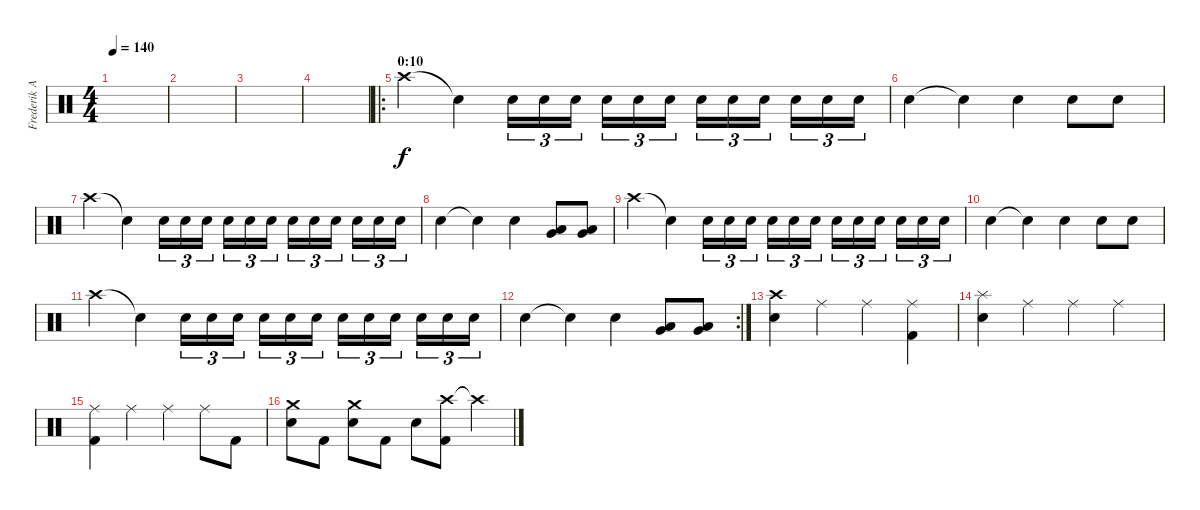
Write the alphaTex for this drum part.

\track ("Frederik Anderson" "Frederik A") {instrument percussion}
\staff {score}
\articulation defaults
\ts (4 4)
\tempo 140
\clef neutral
\ks c
|
|
|
|
\ro
\section ("" "0:10")
"Crash high (hit)".4 "Snare (hit)"{t}.4 "Electric Snare (hit)".16{tu (3 2)} "Electric Snare (hit)".16{tu (3 2)} "Electric Snare (hit)".16{tu (3 2)} "Electric Snare (hit)".16{tu (3 2)} "Electric Snare (hit)".16{tu (3 2)} "Electric Snare (hit)".16{tu (3 2)} "Electric Snare (hit)".16{tu (3 2)} "Electric Snare (hit)".16{tu (3 2)} "Electric Snare (hit)".16{tu (3 2)} "Electric Snare (hit)".16{tu (3 2)} "Electric Snare (hit)".16{tu (3 2)} "Electric Snare (hit)".16{tu (3 2)} |
"Electric Snare (hit)".4 "Electric Snare (hit)"{t}.4 "Electric Snare (hit)".4 "Electric Snare (hit)".8 "Electric Snare (hit)".8 |
"Crash high (hit)".4 "Snare (hit)"{t}.4 "Electric Snare (hit)".16{tu (3 2)} "Electric Snare (hit)".16{tu (3 2)} "Electric Snare (hit)".16{tu (3 2)} "Electric Snare (hit)".16{tu (3 2)} "Electric Snare (hit)".16{tu (3 2)} "Electric Snare (hit)".16{tu (3 2)} "Electric Snare (hit)".16{tu (3 2)} "Electric Snare (hit)".16{tu (3 2)} "Electric Snare (hit)".16{tu (3 2)} "Electric Snare (hit)".16{tu (3 2)} "Electric Snare (hit)".16{tu (3 2)} "Electric Snare (hit)".16{tu (3 2)} |
"Electric Snare (hit)".4 "Electric Snare (hit)"{t}.4 "Electric Snare (hit)".4 ("Low Tom (hit)" "Very Low Tom (hit)").8 ("Very Low Tom (hit)" "Low Floor Tom (hit)").8 |
"Crash high (hit)".4 "Snare (hit)"{t}.4 "Electric Snare (hit)".16{tu (3 2)} "Electric Snare (hit)".16{tu (3 2)} "Electric Snare (hit)".16{tu (3 2)} "Electric Snare (hit)".16{tu (3 2)} "Electric Snare (hit)".16{tu (3 2)} "Electric Snare (hit)".16{tu (3 2)} "Electric Snare (hit)".16{tu (3 2)} "Electric Snare (hit)".16{tu (3 2)} "Electric Snare (hit)".16{tu (3 2)} "Electric Snare (hit)".16{tu (3 2)} "Electric Snare (hit)".16{tu (3 2)} "Electric Snare (hit)".16{tu (3 2)} |
"Electric Snare (hit)".4 "Electric Snare (hit)"{t}.4 "Electric Snare (hit)".4 "Electric Snare (hit)".8 "Electric Snare (hit)".8 |
"Crash high (hit)".4 "Snare (hit)"{t}.4 "Electric Snare (hit)".16{tu (3 2)} "Electric Snare (hit)".16{tu (3 2)} "Electric Snare (hit)".16{tu (3 2)} "Electric Snare (hit)".16{tu (3 2)} "Electric Snare (hit)".16{tu (3 2)} "Electric Snare (hit)".16{tu (3 2)} "Electric Snare (hit)".16{tu (3 2)} "Electric Snare (hit)".16{tu (3 2)} "Electric Snare (hit)".16{tu (3 2)} "Electric Snare (hit)".16{tu (3 2)} "Electric Snare (hit)".16{tu (3 2)} "Electric Snare (hit)".16{tu (3 2)} |
\rc 2 "Electric Snare (hit)".4 "Electric Snare (hit)"{t}.4 "Electric Snare (hit)".4
("Low Tom (hit)" "Very Low Tom (hit)").8 ("Very Low Tom (hit)" "Low Floor Tom (hit)").8 |
("Crash high (hit)" "Electric Snare (hit)").4 "Ride (middle)".4 "Ride (middle)".4 ("Ride (middle)" "Kick (hit) 2").4 |
("Splash (hit)" "Electric Snare (hit)").4 "Ride (middle)".4 "Ride (middle)".4 "Ride (middle)".4 |
("Ride (middle)" "Kick (hit) 2").4 "Ride (middle)".4 "Ride (middle)".4 "Ride (middle)".8 "Kick (hit) 2".8 |
("Crash medium (hit)" "Electric Snare (hit)").8 "Kick (hit) 2".8 ("Crash medium (hit)" "Electric Snare (hit)").8 "Kick (hit) 2".8 "Electric Snare (hit)".8 ("Crash high (hit)" "Kick (hit) 2").8 "Crash high (hit)"{t}.4
